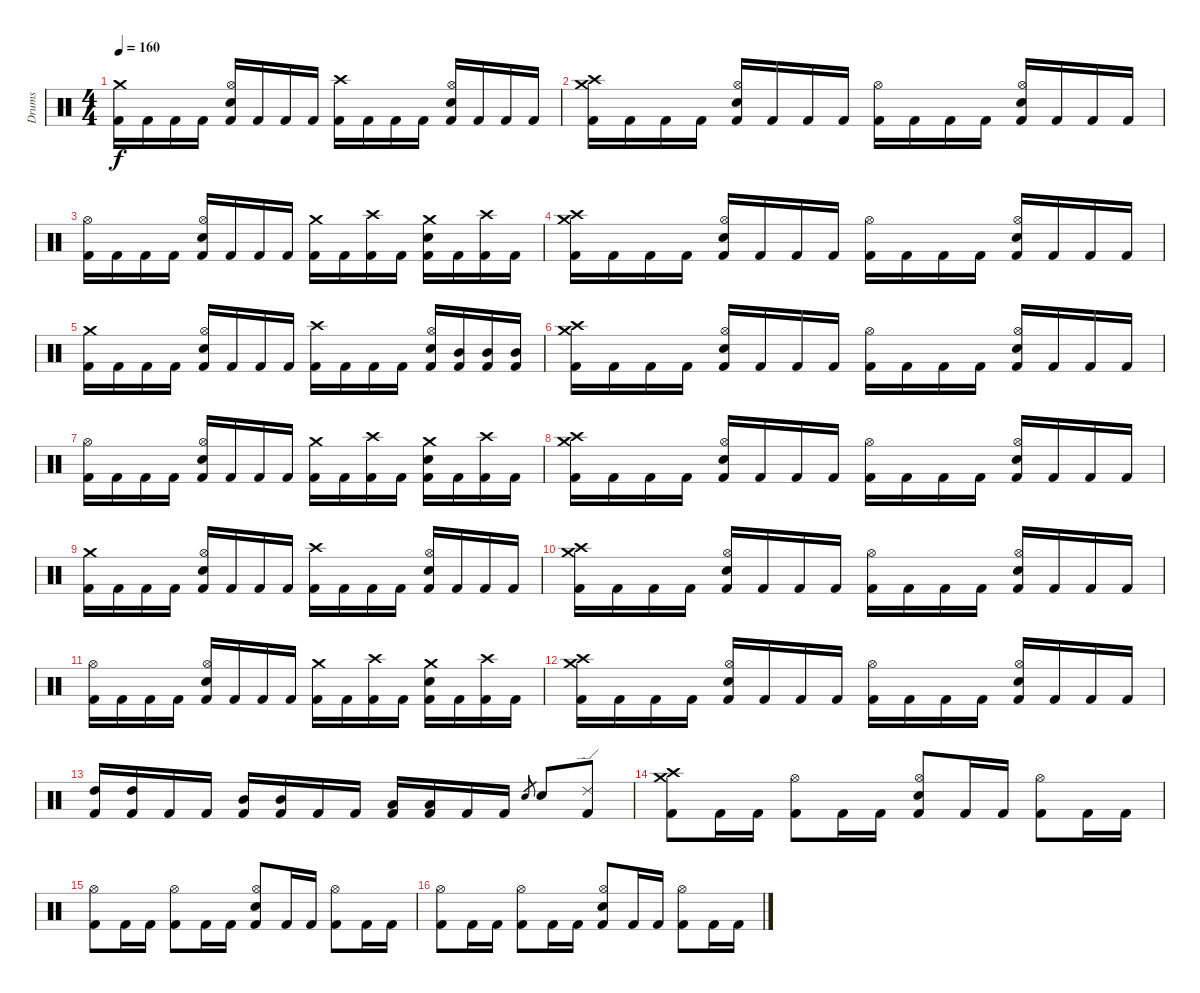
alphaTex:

\track ("Drums" "Drums") {instrument percussion}
\staff {score}
\articulation defaults
\ts (4 4)
\tempo 160
\clef neutral
\ks c
("Crash medium (hit)" "Kick (hit) 2").16{dy f} "Kick (hit) 2".16 "Kick (hit) 2".16 "Kick (hit) 2".16 ("Hi-Hat (open)" "Kick (hit) 2" "Snare (hit) 2").16 "Kick (hit) 2".16 "Kick (hit) 2".16 "Kick (hit) 2".16 ("Crash high (hit)" "Kick (hit) 2").16 "Kick (hit) 2".16 "Kick (hit) 2".16 "Kick (hit) 2".16 ("Hi-Hat (open)" "Kick (hit) 2" "Snare (hit) 2").16 "Kick (hit) 2".16 "Kick (hit) 2".16 "Kick (hit) 2".16 |
("Crash medium (hit)" "Crash high (hit)" "Kick (hit) 2").16 "Kick (hit) 2".16 "Kick (hit) 2".16 "Kick (hit) 2".16 ("Hi-Hat (open)" "Kick (hit) 2" "Snare (hit) 2").16 "Kick (hit) 2".16 "Kick (hit) 2".16 "Kick (hit) 2".16 ("Hi-Hat (open)" "Kick (hit) 2").16 "Kick (hit) 2".16 "Kick (hit) 2".16 "Kick (hit) 2".16 ("Hi-Hat (open)" "Kick (hit) 2" "Snare (hit) 2").16 "Kick (hit) 2".16 "Kick (hit) 2".16 "Kick (hit) 2".16 |
("Hi-Hat (open)" "Kick (hit) 2").16 "Kick (hit) 2".16 "Kick (hit) 2".16 "Kick (hit) 2".16 ("Hi-Hat (open)" "Kick (hit) 2" "Snare (hit) 2").16 "Kick (hit) 2".16 "Kick (hit) 2".16 "Kick (hit) 2".16 ("Crash medium (hit)" "Kick (hit) 2").16 "Kick (hit) 2".16 ("Crash high (hit)" "Kick (hit) 2").16 "Kick (hit) 2".16 ("Crash medium (hit)" "Kick (hit) 2" "Snare (hit) 2").16 "Kick (hit) 2".16 ("Crash high (hit)" "Kick (hit) 2").16 "Kick (hit) 2".16 |
("Crash medium (hit)" "Crash high (hit)" "Kick (hit) 2").16 "Kick (hit) 2".16 "Kick (hit) 2".16 "Kick (hit) 2".16 ("Hi-Hat (open)" "Kick (hit) 2" "Snare (hit) 2").16 "Kick (hit) 2".16 "Kick (hit) 2".16 "Kick (hit) 2".16 ("Hi-Hat (open)" "Kick (hit) 2").16 "Kick (hit) 2".16 "Kick (hit) 2".16 "Kick (hit) 2".16 ("Hi-Hat (open)" "Kick (hit) 2" "Snare (hit) 2").16 "Kick (hit) 2".16 "Kick (hit) 2".16 "Kick (hit) 2".16 |
("Crash medium (hit)" "Kick (hit) 2").16 "Kick (hit) 2".16 "Kick (hit) 2".16 "Kick (hit) 2".16 ("Hi-Hat (open)" "Kick (hit) 2" "Snare (hit) 2").16 "Kick (hit) 2".16 "Kick (hit) 2".16 "Kick (hit) 2".16 ("Crash high (hit)" "Kick (hit) 2").16 "Kick (hit) 2".16 "Kick (hit) 2".16 "Kick (hit) 2".16 ("Hi-Hat (open)" "Kick (hit) 2" "Snare (hit) 2").16 ("Kick (hit) 2" "Mid Tom (hit)").16 ("Kick (hit) 2" "Mid Tom (hit)").16 ("Kick (hit) 2" "Mid Tom (hit)").16 |
("Crash medium (hit)" "Crash high (hit)" "Kick (hit) 2").16 "Kick (hit) 2".16 "Kick (hit) 2".16 "Kick (hit) 2".16 ("Hi-Hat (open)" "Kick (hit) 2" "Snare (hit) 2").16 "Kick (hit) 2".16 "Kick (hit) 2".16 "Kick (hit) 2".16 ("Hi-Hat (open)" "Kick (hit) 2").16 "Kick (hit) 2".16 "Kick (hit) 2".16 "Kick (hit) 2".16 ("Hi-Hat (open)" "Kick (hit) 2" "Snare (hit) 2").16 "Kick (hit) 2".16 "Kick (hit) 2".16 "Kick (hit) 2".16 |
("Hi-Hat (open)" "Kick (hit) 2").16 "Kick (hit) 2".16 "Kick (hit) 2".16 "Kick (hit) 2".16 ("Hi-Hat (open)" "Kick (hit) 2" "Snare (hit) 2").16 "Kick (hit) 2".16 "Kick (hit) 2".16 "Kick (hit) 2".16 ("Crash medium (hit)" "Kick (hit) 2").16 "Kick (hit) 2".16 ("Crash high (hit)" "Kick (hit) 2").16 "Kick (hit) 2".16 ("Crash medium (hit)" "Kick (hit) 2" "Snare (hit) 2").16 "Kick (hit) 2".16 ("Crash high (hit)" "Kick (hit) 2").16 "Kick (hit) 2".16 |
("Crash medium (hit)" "Crash high (hit)" "Kick (hit) 2").16 "Kick (hit) 2".16 "Kick (hit) 2".16 "Kick (hit) 2".16 ("Hi-Hat (open)" "Kick (hit) 2" "Snare (hit) 2").16 "Kick (hit) 2".16 "Kick (hit) 2".16 "Kick (hit) 2".16 ("Hi-Hat (open)" "Kick (hit) 2").16 "Kick (hit) 2".16 "Kick (hit) 2".16 "Kick (hit) 2".16 ("Hi-Hat (open)" "Kick (hit) 2" "Snare (hit) 2").16 "Kick (hit) 2".16 "Kick (hit) 2".16 "Kick (hit) 2".16 |
("Crash medium (hit)" "Kick (hit) 2").16 "Kick (hit) 2".16 "Kick (hit) 2".16 "Kick (hit) 2".16 ("Hi-Hat (open)" "Kick (hit) 2" "Snare (hit) 2").16 "Kick (hit) 2".16 "Kick (hit) 2".16 "Kick (hit) 2".16 ("Crash high (hit)" "Kick (hit) 2").16 "Kick (hit) 2".16 "Kick (hit) 2".16 "Kick (hit) 2".16 ("Hi-Hat (open)" "Kick (hit) 2" "Snare (hit) 2").16 "Kick (hit) 2".16 "Kick (hit) 2".16 "Kick (hit) 2".16 |
("Crash medium (hit)" "Crash high (hit)" "Kick (hit) 2").16 "Kick (hit) 2".16 "Kick (hit) 2".16 "Kick (hit) 2".16 ("Hi-Hat (open)" "Kick (hit) 2" "Snare (hit) 2").16 "Kick (hit) 2".16 "Kick (hit) 2".16 "Kick (hit) 2".16 ("Hi-Hat (open)" "Kick (hit) 2").16 "Kick (hit) 2".16 "Kick (hit) 2".16 "Kick (hit) 2".16 ("Hi-Hat (open)" "Kick (hit) 2" "Snare (hit) 2").16 "Kick (hit) 2".16 "Kick (hit) 2".16 "Kick (hit) 2".16 |
("Hi-Hat (open)" "Kick (hit) 2").16 "Kick (hit) 2".16 "Kick (hit) 2".16 "Kick (hit) 2".16 ("Hi-Hat (open)" "Kick (hit) 2" "Snare (hit) 2").16 "Kick (hit) 2".16 "Kick (hit) 2".16 "Kick (hit) 2".16 ("Crash medium (hit)" "Kick (hit) 2").16 "Kick (hit) 2".16 ("Crash high (hit)" "Kick (hit) 2").16 "Kick (hit) 2".16 ("Crash medium (hit)" "Kick (hit) 2" "Snare (hit) 2").16 "Kick (hit) 2".16 ("Crash high (hit)" "Kick (hit) 2").16 "Kick (hit) 2".16 |
("Crash medium (hit)" "Crash high (hit)" "Kick (hit) 2").16 "Kick (hit) 2".16 "Kick (hit) 2".16 "Kick (hit) 2".16 ("Hi-Hat (open)" "Kick (hit) 2" "Snare (hit) 2").16 "Kick (hit) 2".16 "Kick (hit) 2".16 "Kick (hit) 2".16 ("Hi-Hat (open)" "Kick (hit) 2").16 "Kick (hit) 2".16 "Kick (hit) 2".16 "Kick (hit) 2".16 ("Hi-Hat (open)" "Kick (hit) 2" "Snare (hit) 2").16 "Kick (hit) 2".16 "Kick (hit) 2".16 "Kick (hit) 2".16 |
("Kick (hit) 2" "High Tom (hit)").16 ("Kick (hit) 2" "High Tom (hit)").16 "Kick (hit) 2".16 "Kick (hit) 2".16 ("Kick (hit) 2" "Mid Tom (hit)").16 ("Kick (hit) 2" "Mid Tom (hit)").16 "Kick (hit) 2".16 "Kick (hit) 2".16 ("Kick (hit) 2" "Low Tom (hit)").16 ("Kick (hit) 2" "Low Tom (hit)").16 "Kick (hit) 2".16 "Kick (hit) 2".16 "Snare (hit) 2".8{gr} "Snare (hit) 2".8 ("Ride (edge) 2" "Kick (hit) 2").8 |
("Crash medium (hit)" "Crash high (hit)" "Kick (hit) 2").8 "Kick (hit) 2".16 "Kick (hit) 2".16 ("Hi-Hat (open)" "Kick (hit) 2").8 "Kick (hit) 2".16 "Kick (hit) 2".16 ("Hi-Hat (open)" "Kick (hit) 2" "Snare (hit) 2").8 "Kick (hit) 2".16 "Kick (hit) 2".16 ("Hi-Hat (open)" "Kick (hit) 2").8 "Kick (hit) 2".16 "Kick (hit) 2".16 |
("Hi-Hat (open)" "Kick (hit) 2").8 "Kick (hit) 2".16 "Kick (hit) 2".16 ("Hi-Hat (open)" "Kick (hit) 2").8 "Kick (hit) 2".16 "Kick (hit) 2".16 ("Hi-Hat (open)" "Kick (hit) 2" "Snare (hit) 2").8 "Kick (hit) 2".16 "Kick (hit) 2".16 ("Hi-Hat (open)" "Kick (hit) 2").8 "Kick (hit) 2".16 "Kick (hit) 2".16 |
("Hi-Hat (open)" "Kick (hit) 2").8 "Kick (hit) 2".16 "Kick (hit) 2".16 ("Hi-Hat (open)" "Kick (hit) 2").8 "Kick (hit) 2".16 "Kick (hit) 2".16 ("Hi-Hat (open)" "Kick (hit) 2" "Snare (hit) 2").8 "Kick (hit) 2".16 "Kick (hit) 2".16 ("Hi-Hat (open)" "Kick (hit) 2").8 "Kick (hit) 2".16 "Kick (hit) 2".16
